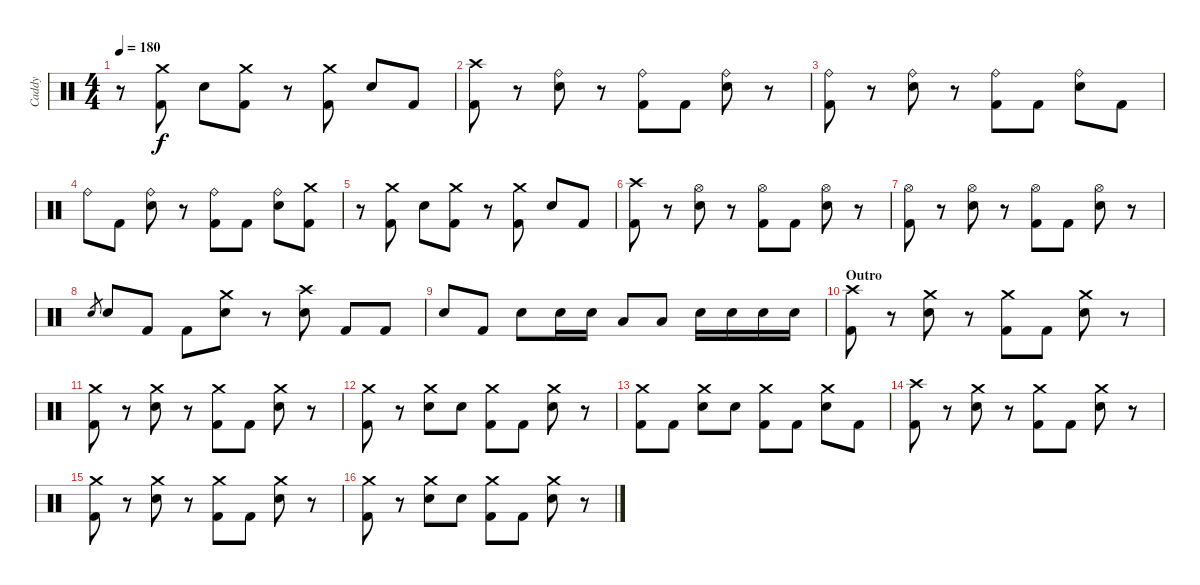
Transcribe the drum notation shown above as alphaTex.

\track ("Caddy" "Caddy") {instrument percussion}
\staff {score}
\articulation defaults
\ts (4 4)
\tempo 180
\clef neutral
\ks c
r.8{dy f} ("Crash medium (hit)" "Kick (hit) 2").8 "Electric Snare (hit)".8 ("Crash medium (hit)" "Kick (hit) 2").8 r.8 ("Crash medium (hit)" "Kick (hit) 2").8 "Electric Snare (hit)".8 "Kick (hit) 2".8 |
("Crash high (hit)" "Kick (hit) 2").8 r.8 ("Ride (bell)" "Electric Snare (hit)").8 r.8 ("Ride (bell)" "Kick (hit) 2").8 "Kick (hit) 2".8 ("Ride (bell)" "Electric Snare (hit)").8 r.8 |
("Ride (bell)" "Kick (hit) 2").8 r.8 ("Ride (bell)" "Electric Snare (hit)").8 r.8 ("Ride (bell)" "Kick (hit) 2").8 "Kick (hit) 2".8 ("Ride (bell)" "Electric Snare (hit)").8 "Kick (hit) 2".8 |
"Ride (bell)".8 "Kick (hit) 2".8 ("Ride (bell)" "Electric Snare (hit)").8 r.8 ("Ride (bell)" "Kick (hit) 2").8 "Kick (hit) 2".8 ("Ride (bell)" "Electric Snare (hit)").8 ("Crash medium (hit)" "Kick (hit) 2").8 |
r.8 ("Crash medium (hit)" "Kick (hit) 2").8 "Electric Snare (hit)".8 ("Crash medium (hit)" "Kick (hit) 2").8 r.8 ("Crash medium (hit)" "Kick (hit) 2").8 "Electric Snare (hit)".8 "Kick (hit) 2".8 |
("Crash high (hit)" "Kick (hit) 2").8 r.8 ("Hi-Hat (open)" "Electric Snare (hit)").8 r.8 ("Hi-Hat (open)" "Kick (hit) 2").8 "Kick (hit) 2".8 ("Hi-Hat (open)" "Electric Snare (hit)").8 r.8 |
("Hi-Hat (open)" "Kick (hit) 2").8 r.8 ("Hi-Hat (open)" "Electric Snare (hit)").8 r.8 ("Hi-Hat (open)" "Kick (hit) 2").8 "Kick (hit) 2".8 ("Hi-Hat (open)" "Electric Snare (hit)").8 r.8 |
"Electric Snare (hit)".8{gr} "Electric Snare (hit)".8 "Kick (hit) 2".8 "Kick (hit) 2".8 ("Crash medium (hit)" "Electric Snare (hit)").8 r.8 ("Crash high (hit)" "Electric Snare (hit)").8 "Kick (hit) 2".8 "Kick (hit) 2".8 |
"Electric Snare (hit)".8 "Kick (hit) 2".8 "Electric Snare (hit)".8 "Electric Snare (hit)".16 "Electric Snare (hit)".16 "Low Tom (hit)".8 "Low Tom (hit)".8 "Electric Snare (hit)".16 "Electric Snare (hit)".16 "Electric Snare (hit)".16 "Electric Snare (hit)".16 |
\section ("" "Outro")
("Crash high (hit)" "Kick (hit) 2").8 r.8 ("Crash medium (hit)" "Electric Snare (hit)").8 r.8 ("Crash medium (hit)" "Kick (hit) 2").8 "Kick (hit) 2".8 ("Crash medium (hit)" "Electric Snare (hit)").8 r.8 |
("Crash medium (hit)" "Kick (hit) 2").8 r.8 ("Crash medium (hit)" "Electric Snare (hit)").8 r.8 ("Crash medium (hit)" "Kick (hit) 2").8 "Kick (hit) 2".8 ("Crash medium (hit)" "Electric Snare (hit)").8 r.8 |
("Crash medium (hit)" "Kick (hit) 2").8 r.8 ("Crash medium (hit)" "Electric Snare (hit)").8 "Electric Snare (hit)".8 ("Crash medium (hit)" "Kick (hit) 2").8 "Kick (hit) 2".8 ("Crash medium (hit)" "Electric Snare (hit)").8 r.8 |
("Crash medium (hit)" "Kick (hit) 2").8 "Kick (hit) 2".8 ("Crash medium (hit)" "Electric Snare (hit)").8 "Electric Snare (hit)".8 ("Crash medium (hit)" "Kick (hit) 2").8 "Kick (hit) 2".8 ("Crash medium (hit)" "Electric Snare (hit)").8 "Kick (hit) 2".8 |
("Crash high (hit)" "Kick (hit) 2").8 r.8 ("Crash medium (hit)" "Electric Snare (hit)").8 r.8 ("Crash medium (hit)" "Kick (hit) 2").8 "Kick (hit) 2".8 ("Crash medium (hit)" "Electric Snare (hit)").8 r.8 |
("Crash medium (hit)" "Kick (hit) 2").8 r.8 ("Crash medium (hit)" "Electric Snare (hit)").8 r.8 ("Crash medium (hit)" "Kick (hit) 2").8 "Kick (hit) 2".8 ("Crash medium (hit)" "Electric Snare (hit)").8 r.8 |
("Crash medium (hit)" "Kick (hit) 2").8 r.8 ("Crash medium (hit)" "Electric Snare (hit)").8 "Electric Snare (hit)".8 ("Crash medium (hit)" "Kick (hit) 2").8 "Kick (hit) 2".8 ("Crash medium (hit)" "Electric Snare (hit)").8 r.8
